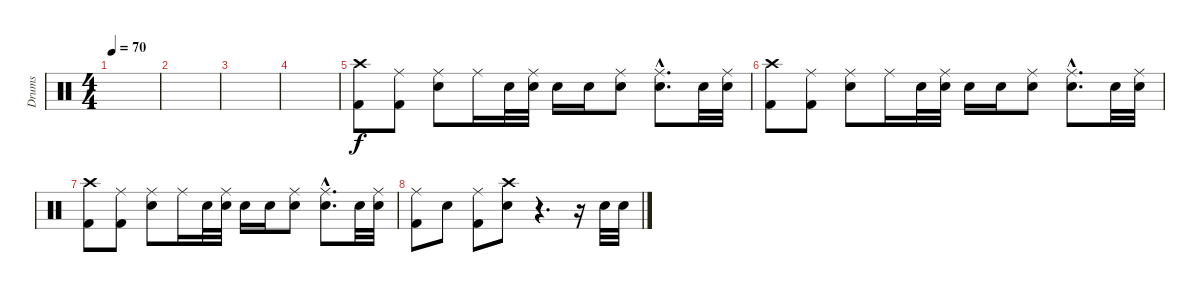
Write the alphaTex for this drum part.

\track ("Drums" "Drums") {instrument percussion}
\staff {score}
\articulation defaults
\ts (4 4)
\tempo 70
\clef neutral
\ks c
|
|
|
|
("Crash high (hit)" "Kick (hit) 2").8 ("Ride (middle)" "Kick (hit) 2").8 ("Ride (middle)" "Electric Snare (hit)").8 "Ride (middle)".16 "Electric Snare (hit)".32 ("Ride (middle)" "Electric Snare (hit)").32 "Electric Snare (hit)".16 "Electric Snare (hit)".16 ("Ride (middle)" "Electric Snare (hit)").8 ("Ride (middle)"{hac} "Electric Snare (hit)"{hac}).8{d} "Electric Snare (hit)".32 ("Ride (middle)" "Electric Snare (hit)").32 |
("Crash high (hit)" "Kick (hit) 2").8 ("Ride (middle)" "Kick (hit) 2").8 ("Ride (middle)" "Electric Snare (hit)").8 "Ride (middle)".16 "Electric Snare (hit)".32 ("Ride (middle)" "Electric Snare (hit)").32 "Electric Snare (hit)".16 "Electric Snare (hit)".16 ("Ride (middle)" "Electric Snare (hit)").8 ("Ride (middle)"{hac} "Electric Snare (hit)"{hac}).8{d} "Electric Snare (hit)".32 ("Ride (middle)" "Electric Snare (hit)").32 |
("Crash high (hit)" "Kick (hit) 2").8 ("Ride (middle)" "Kick (hit) 2").8 ("Ride (middle)" "Electric Snare (hit)").8 "Ride (middle)".16 "Electric Snare (hit)".32 ("Ride (middle)" "Electric Snare (hit)").32 "Electric Snare (hit)".16 "Electric Snare (hit)".16 ("Ride (middle)" "Electric Snare (hit)").8 ("Ride (middle)"{hac} "Electric Snare (hit)"{hac}).8{d} "Electric Snare (hit)".32 ("Ride (middle)" "Electric Snare (hit)").32 |
("Ride (middle)" "Kick (hit) 2").8 "Electric Snare (hit)".8 ("Ride (middle)" "Kick (hit) 2").8 ("Crash high (hit)" "Electric Snare (hit)").8 r.4{d} r.16 "Electric Snare (hit)".32 "Electric Snare (hit)".32
